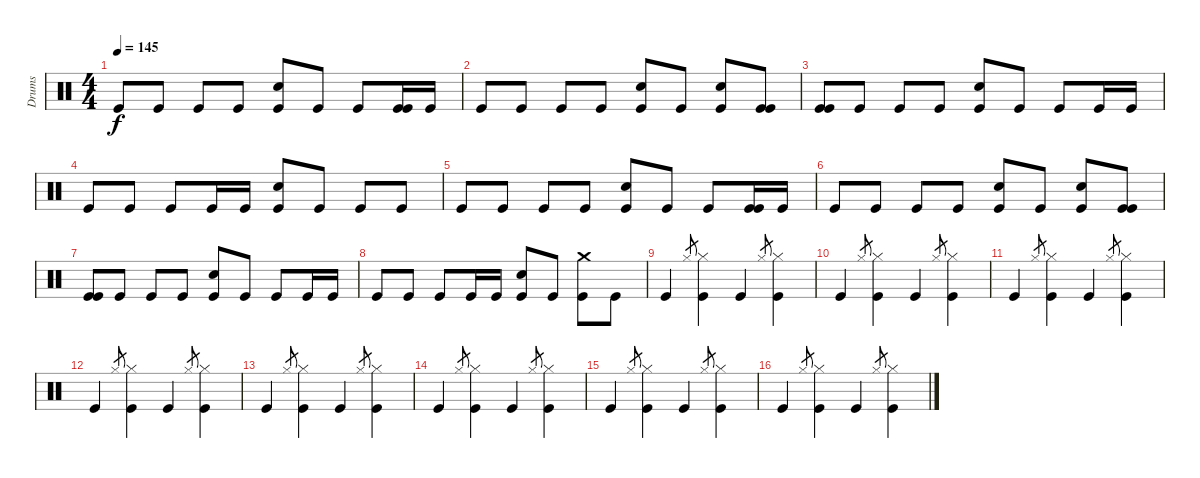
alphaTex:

\track ("Drums" "Drums") {instrument percussion}
\staff {score}
\articulation defaults
\ts (4 4)
\tempo 145
\clef neutral
\ks c "Kick (hit)".8{dy f} "Kick (hit)".8 "Kick (hit)".8 "Kick (hit)".8
("Snare (hit) 2" "Kick (hit)").8 "Kick (hit)".8 "Kick (hit)".8 ("Kick (hit)" "Kick (hit)").16 "Kick (hit)".16 |
"Kick (hit)".8 "Kick (hit)".8 "Kick (hit)".8 "Kick (hit)".8 ("Snare (hit) 2" "Kick (hit)").8 "Kick (hit)".8 ("Snare (hit) 2" "Kick (hit)").8 ("Kick (hit)" "Kick (hit)").8 |
("Kick (hit)" "Kick (hit)").8 "Kick (hit)".8 "Kick (hit)".8 "Kick (hit)".8 ("Snare (hit) 2" "Kick (hit)").8 "Kick (hit)".8 "Kick (hit)".8 "Kick (hit)".16 "Kick (hit)".16 |
"Kick (hit)".8 "Kick (hit)".8 "Kick (hit)".8 "Kick (hit)".16 "Kick (hit)".16 ("Snare (hit) 2" "Kick (hit)").8 "Kick (hit)".8 "Kick (hit)".8 "Kick (hit)".8 |
"Kick (hit)".8 "Kick (hit)".8 "Kick (hit)".8 "Kick (hit)".8 ("Snare (hit) 2" "Kick (hit)").8 "Kick (hit)".8 "Kick (hit)".8 ("Kick (hit)" "Kick (hit)").16 "Kick (hit)".16 |
"Kick (hit)".8 "Kick (hit)".8 "Kick (hit)".8 "Kick (hit)".8 ("Snare (hit) 2" "Kick (hit)").8 "Kick (hit)".8 ("Snare (hit) 2" "Kick (hit)").8 ("Kick (hit)" "Kick (hit)").8 |
("Kick (hit)" "Kick (hit)").8 "Kick (hit)".8 "Kick (hit)".8 "Kick (hit)".8 ("Snare (hit) 2" "Kick (hit)").8 "Kick (hit)".8 "Kick (hit)".8 "Kick (hit)".16 "Kick (hit)".16 |
"Kick (hit)".8 "Kick (hit)".8 "Kick (hit)".8 "Kick (hit)".16 "Kick (hit)".16 ("Snare (hit) 2" "Kick (hit)").8 "Kick (hit)".8 ("Crash medium (hit)" "Kick (hit)").8 "Kick (hit)".8 |
"Kick (hit)".4 "Hi-Hat (closed)".8{gr} ("Hi-Hat (closed)" "Kick (hit)").4 "Kick (hit)".4 "Hi-Hat (closed)".8{gr} ("Hi-Hat (closed)" "Kick (hit)").4 |
"Kick (hit)".4 "Hi-Hat (closed)".8{gr} ("Hi-Hat (closed)" "Kick (hit)").4 "Kick (hit)".4 "Hi-Hat (closed)".8{gr} ("Hi-Hat (closed)" "Kick (hit)").4 |
"Kick (hit)".4 "Hi-Hat (closed)".8{gr} ("Hi-Hat (closed)" "Kick (hit)").4 "Kick (hit)".4 "Hi-Hat (closed)".8{gr} ("Hi-Hat (closed)" "Kick (hit)").4 |
"Kick (hit)".4 "Hi-Hat (closed)".8{gr} ("Hi-Hat (closed)" "Kick (hit)").4 "Kick (hit)".4 "Hi-Hat (closed)".8{gr} ("Hi-Hat (closed)" "Kick (hit)").4 |
"Kick (hit)".4 "Hi-Hat (closed)".8{gr} ("Hi-Hat (closed)" "Kick (hit)").4 "Kick (hit)".4 "Hi-Hat (closed)".8{gr} ("Hi-Hat (closed)" "Kick (hit)").4 |
"Kick (hit)".4 "Hi-Hat (closed)".8{gr} ("Hi-Hat (closed)" "Kick (hit)").4 "Kick (hit)".4 "Hi-Hat (closed)".8{gr} ("Hi-Hat (closed)" "Kick (hit)").4 |
"Kick (hit)".4 "Hi-Hat (closed)".8{gr} ("Hi-Hat (closed)" "Kick (hit)").4 "Kick (hit)".4 "Hi-Hat (closed)".8{gr} ("Hi-Hat (closed)" "Kick (hit)").4 |
"Kick (hit)".4 "Hi-Hat (closed)".8{gr} ("Hi-Hat (closed)" "Kick (hit)").4 "Kick (hit)".4 "Hi-Hat (closed)".8{gr} ("Hi-Hat (closed)" "Kick (hit)").4
